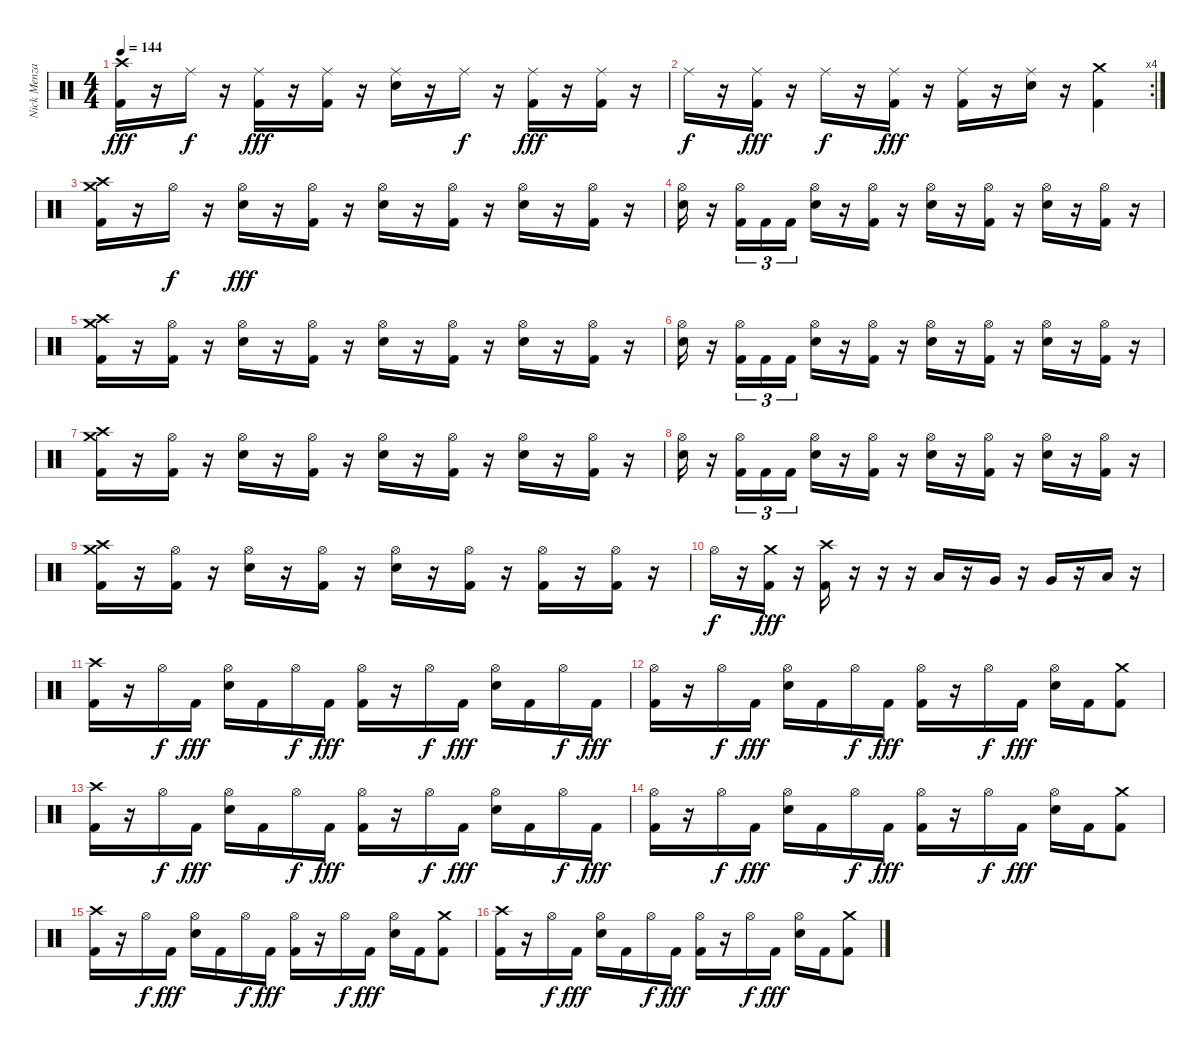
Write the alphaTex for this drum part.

\track ("Nick Menza" "Nick Menza") {instrument percussion}
\staff {score}
\articulation defaults
\ts (4 4)
\tempo 144
\clef neutral
\ks c
("Kick (hit) 2" "Crash high (hit)").16{dy fff} r.16 "Ride (middle)".16{dy f} r.16 ("Kick (hit) 2" "Ride (middle)").16{dy fff} r.16 ("Kick (hit) 2" "Ride (middle)").16 r.16 ("Electric Snare (hit)" "Ride (middle)").16 r.16 "Ride (middle)".16{dy f} r.16 ("Kick (hit) 2" "Ride (middle)").16{dy fff} r.16 ("Kick (hit) 2" "Ride (middle)").16 r.16 |
\rc 4 "Ride (middle)".16{dy f}
r.16 ("Kick (hit) 2" "Ride (middle)").16{dy fff} r.16 "Ride (middle)".16{dy f} r.16 ("Kick (hit) 2" "Ride (middle)").16{dy fff} r.16 ("Kick (hit) 2" "Ride (middle)").16 r.16 ("Electric Snare (hit)" "Ride (middle)").16 r.16 ("Kick (hit) 2" "Crash medium (hit)").4 |
("Kick (hit) 2" "Crash high (hit)" "Crash medium (hit)").16 r.16 "Hi-Hat (open)".16{dy f} r.16 ("Electric Snare (hit)" "Hi-Hat (open)").16{dy fff} r.16 ("Kick (hit) 2" "Hi-Hat (open)").16 r.16 ("Electric Snare (hit)" "Hi-Hat (open)").16 r.16 ("Kick (hit) 2" "Hi-Hat (open)").16 r.16 ("Electric Snare (hit)" "Hi-Hat (open)").16 r.16 ("Kick (hit) 2" "Hi-Hat (open)").16 r.16 |
("Electric Snare (hit)" "Hi-Hat (open)").16 r.16 ("Kick (hit) 2" "Hi-Hat (open)").16{tu (3 2)} "Kick (hit) 2".16{tu (3 2)} "Kick (hit) 2".16{tu (3 2)} ("Electric Snare (hit)" "Hi-Hat (open)").16 r.16 ("Kick (hit) 2" "Hi-Hat (open)").16 r.16 ("Electric Snare (hit)" "Hi-Hat (open)").16 r.16 ("Kick (hit) 2" "Hi-Hat (open)").16 r.16 ("Electric Snare (hit)" "Hi-Hat (open)").16 r.16 ("Kick (hit) 2" "Hi-Hat (open)").16 r.16 |
("Kick (hit) 2" "Crash high (hit)" "Crash medium (hit)").16 r.16 ("Kick (hit) 2" "Hi-Hat (open)").16 r.16 ("Electric Snare (hit)" "Hi-Hat (open)").16 r.16 ("Kick (hit) 2" "Hi-Hat (open)").16 r.16 ("Electric Snare (hit)" "Hi-Hat (open)").16 r.16 ("Kick (hit) 2" "Hi-Hat (open)").16 r.16 ("Electric Snare (hit)" "Hi-Hat (open)").16 r.16 ("Kick (hit) 2" "Hi-Hat (open)").16 r.16 |
("Electric Snare (hit)" "Hi-Hat (open)").16 r.16 ("Kick (hit) 2" "Hi-Hat (open)").16{tu (3 2)} "Kick (hit) 2".16{tu (3 2)} "Kick (hit) 2".16{tu (3 2)} ("Electric Snare (hit)" "Hi-Hat (open)").16 r.16 ("Kick (hit) 2" "Hi-Hat (open)").16 r.16 ("Electric Snare (hit)" "Hi-Hat (open)").16 r.16 ("Kick (hit) 2" "Hi-Hat (open)").16 r.16 ("Electric Snare (hit)" "Hi-Hat (open)").16 r.16 ("Kick (hit) 2" "Hi-Hat (open)").16 r.16 |
("Kick (hit) 2" "Crash high (hit)" "Crash medium (hit)").16 r.16 ("Kick (hit) 2" "Hi-Hat (open)").16 r.16 ("Electric Snare (hit)" "Hi-Hat (open)").16 r.16 ("Kick (hit) 2" "Hi-Hat (open)").16 r.16 ("Electric Snare (hit)" "Hi-Hat (open)").16 r.16 ("Kick (hit) 2" "Hi-Hat (open)").16 r.16 ("Electric Snare (hit)" "Hi-Hat (open)").16 r.16 ("Kick (hit) 2" "Hi-Hat (open)").16 r.16 |
("Electric Snare (hit)" "Hi-Hat (open)").16 r.16 ("Kick (hit) 2" "Hi-Hat (open)").16{tu (3 2)} "Kick (hit) 2".16{tu (3 2)} "Kick (hit) 2".16{tu (3 2)} ("Electric Snare (hit)" "Hi-Hat (open)").16 r.16 ("Kick (hit) 2" "Hi-Hat (open)").16 r.16 ("Electric Snare (hit)" "Hi-Hat (open)").16 r.16 ("Kick (hit) 2" "Hi-Hat (open)").16 r.16 ("Electric Snare (hit)" "Hi-Hat (open)").16 r.16 ("Kick (hit) 2" "Hi-Hat (open)").16 r.16 |
("Kick (hit) 2" "Crash high (hit)" "Crash medium (hit)").16 r.16 ("Kick (hit) 2" "Hi-Hat (open)").16 r.16 ("Electric Snare (hit)" "Hi-Hat (open)").16 r.16 ("Kick (hit) 2" "Hi-Hat (open)").16 r.16 ("Electric Snare (hit)" "Hi-Hat (open)").16 r.16 ("Kick (hit) 2" "Hi-Hat (open)").16 r.16 ("Kick (hit) 2" "Hi-Hat (open)").16 r.16 ("Kick (hit) 2" "Hi-Hat (open)").16 r.16 |
"Hi-Hat (open)".16{dy f} r.16 ("Kick (hit) 2" "Crash medium (hit)").16{dy fff} r.16 ("Kick (hit) 2" "Crash high (hit)").16 r.16 r.16 r.16 "Low Tom (hit)".16 r.16 "Very Low Tom (hit)".16 r.16 "Very Low Tom (hit)".16 r.16 "Low Floor Tom (hit)".16 r.16 |
("Kick (hit) 2" "Crash high (hit)").16 r.16 "Hi-Hat (open)".16{dy f} "Kick (hit) 2".16{dy fff} ("Electric Snare (hit)" "Hi-Hat (open)").16 "Kick (hit) 2".16 "Hi-Hat (open)".16{dy f} "Kick (hit) 2".16{dy fff} ("Kick (hit) 2" "Hi-Hat (open)").16 r.16 "Hi-Hat (open)".16{dy f} "Kick (hit) 2".16{dy fff} ("Electric Snare (hit)" "Hi-Hat (open)").16 "Kick (hit) 2".16 "Hi-Hat (open)".16{dy f} "Kick (hit) 2".16{dy fff} |
("Kick (hit) 2" "Hi-Hat (open)").16 r.16 "Hi-Hat (open)".16{dy f} "Kick (hit) 2".16{dy fff} ("Electric Snare (hit)" "Hi-Hat (open)").16 "Kick (hit) 2".16 "Hi-Hat (open)".16{dy f} "Kick (hit) 2".16{dy fff} ("Kick (hit) 2" "Hi-Hat (open)").16 r.16 "Hi-Hat (open)".16{dy f} "Kick (hit) 2".16{dy fff} ("Electric Snare (hit)" "Hi-Hat (open)").16 "Kick (hit) 2".16 ("Kick (hit) 2" "Crash medium (hit)").8 |
("Kick (hit) 2" "Crash high (hit)").16 r.16 "Hi-Hat (open)".16{dy f} "Kick (hit) 2".16{dy fff} ("Electric Snare (hit)" "Hi-Hat (open)").16 "Kick (hit) 2".16 "Hi-Hat (open)".16{dy f} "Kick (hit) 2".16{dy fff} ("Kick (hit) 2" "Hi-Hat (open)").16 r.16 "Hi-Hat (open)".16{dy f} "Kick (hit) 2".16{dy fff} ("Electric Snare (hit)" "Hi-Hat (open)").16 "Kick (hit) 2".16 "Hi-Hat (open)".16{dy f} "Kick (hit) 2".16{dy fff} |
("Kick (hit) 2" "Hi-Hat (open)").16 r.16 "Hi-Hat (open)".16{dy f} "Kick (hit) 2".16{dy fff} ("Electric Snare (hit)" "Hi-Hat (open)").16 "Kick (hit) 2".16 "Hi-Hat (open)".16{dy f} "Kick (hit) 2".16{dy fff} ("Kick (hit) 2" "Hi-Hat (open)").16 r.16 "Hi-Hat (open)".16{dy f} "Kick (hit) 2".16{dy fff} ("Electric Snare (hit)" "Hi-Hat (open)").16 "Kick (hit) 2".16 ("Kick (hit) 2" "Crash medium (hit)").8 |
("Kick (hit) 2" "Crash high (hit)").16 r.16 "Hi-Hat (open)".16{dy f} "Kick (hit) 2".16{dy fff} ("Electric Snare (hit)" "Hi-Hat (open)").16 "Kick (hit) 2".16 "Hi-Hat (open)".16{dy f} "Kick (hit) 2".16{dy fff} ("Kick (hit) 2" "Hi-Hat (open)").16 r.16 "Hi-Hat (open)".16{dy f} "Kick (hit) 2".16{dy fff} ("Electric Snare (hit)" "Hi-Hat (open)").16 "Kick (hit) 2".16 ("Kick (hit) 2" "Crash medium (hit)").8 |
("Kick (hit) 2" "Crash high (hit)").16 r.16 "Hi-Hat (open)".16{dy f} "Kick (hit) 2".16{dy fff} ("Electric Snare (hit)" "Hi-Hat (open)").16 "Kick (hit) 2".16 "Hi-Hat (open)".16{dy f} "Kick (hit) 2".16{dy fff} ("Kick (hit) 2" "Hi-Hat (open)").16 r.16 "Hi-Hat (open)".16{dy f} "Kick (hit) 2".16{dy fff} ("Electric Snare (hit)" "Hi-Hat (open)").16 "Kick (hit) 2".16 ("Kick (hit) 2" "Crash medium (hit)").8
